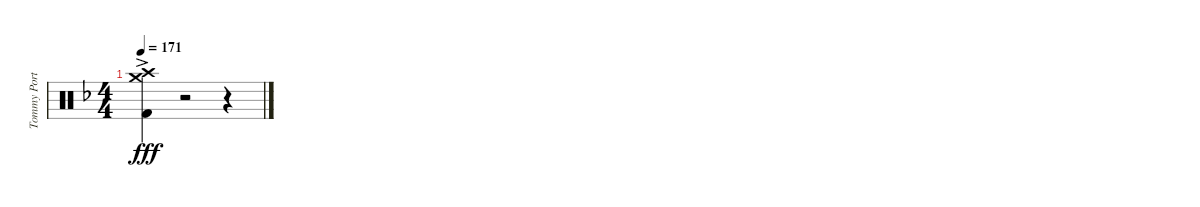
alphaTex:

\track ("Tommy Portino" "Tommy Port") {instrument percussion}
\staff {score}
\articulation defaults
\ts (4 4)
\tempo 171
\clef neutral
\ks dminor
("Kick (hit) 2"{ac} "Crash medium (hit)" "Crash high (hit)").4{dy fff} r.2 r.4
